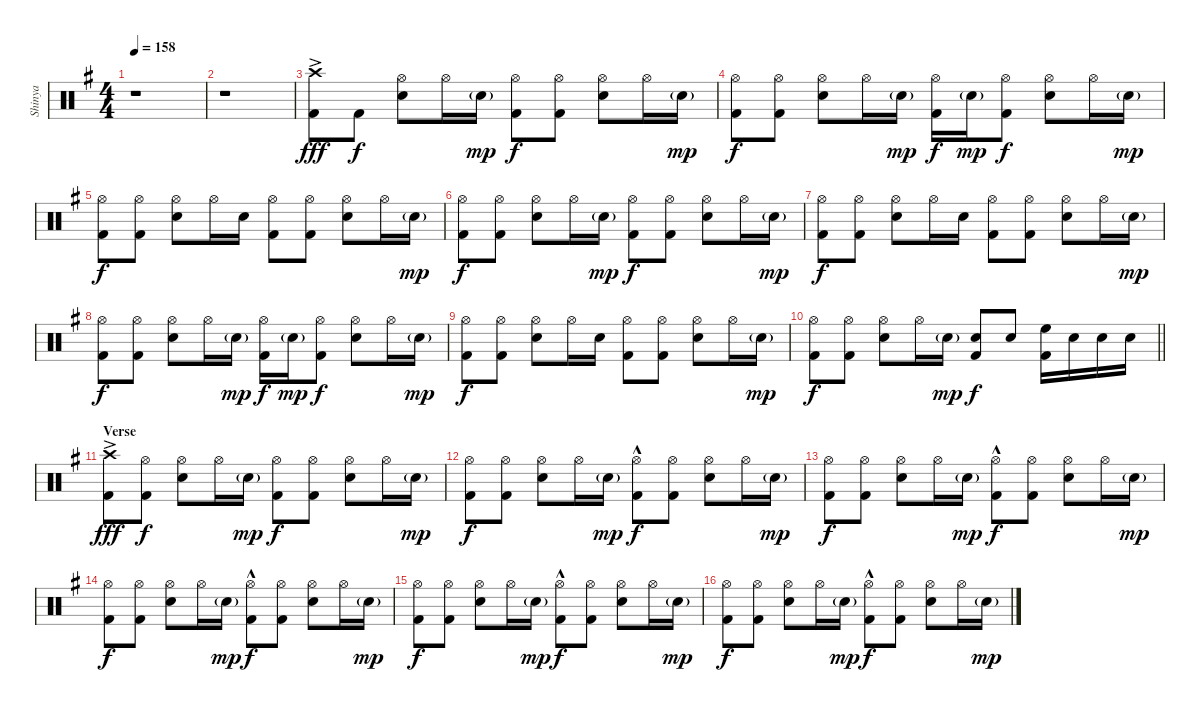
\track ("Shinya" "Shinya") {instrument percussion}
\staff {score}
\articulation defaults
\ts (4 4)
\tempo 158
\clef neutral
\ks g
r.1{dy fff} |
r.1 |
("Crash high (hit)"{ac} "Kick (hit) 2").8 "Kick (hit) 2".8{dy f} ("Hi-Hat (open)" "Snare (hit) 2").8 "Hi-Hat (open)".16 "Snare (hit) 2"{g}.16{dy mp} ("Hi-Hat (open)" "Kick (hit) 2").8{dy f} ("Hi-Hat (open)" "Kick (hit) 2").8 ("Hi-Hat (open)" "Snare (hit) 2").8 "Hi-Hat (open)".16 "Snare (hit) 2"{g}.16{dy mp} |
("Hi-Hat (open)" "Kick (hit) 2").8{dy f} ("Hi-Hat (open)" "Kick (hit) 2").8 ("Hi-Hat (open)" "Snare (hit) 2").8 "Hi-Hat (open)".16 "Snare (hit) 2"{g}.16{dy mp} ("Hi-Hat (open)" "Kick (hit) 2").16{dy f} "Snare (hit) 2"{g}.16{dy mp} ("Hi-Hat (open)" "Kick (hit) 2").8{dy f} ("Hi-Hat (open)" "Snare (hit) 2").8 "Hi-Hat (open)".16 "Snare (hit) 2"{g}.16{dy mp} |
("Hi-Hat (open)" "Kick (hit) 2").8{dy f} ("Hi-Hat (open)" "Kick (hit) 2").8 ("Hi-Hat (open)" "Snare (hit) 2").8 "Hi-Hat (open)".16 "Snare (hit) 2".16 ("Hi-Hat (open)" "Kick (hit) 2").8 ("Hi-Hat (open)" "Kick (hit) 2").8 ("Hi-Hat (open)" "Snare (hit) 2").8 "Hi-Hat (open)".16 "Snare (hit) 2"{g}.16{dy mp} |
("Hi-Hat (open)" "Kick (hit) 2").8{dy f} ("Hi-Hat (open)" "Kick (hit) 2").8 ("Hi-Hat (open)" "Snare (hit) 2").8 "Hi-Hat (open)".16 "Snare (hit) 2"{g}.16{dy mp} ("Hi-Hat (open)" "Kick (hit) 2").8{dy f} ("Hi-Hat (open)" "Kick (hit) 2").8 ("Hi-Hat (open)" "Snare (hit) 2").8 "Hi-Hat (open)".16 "Snare (hit) 2"{g}.16{dy mp} |
("Hi-Hat (open)" "Kick (hit) 2").8{dy f} ("Hi-Hat (open)" "Kick (hit) 2").8 ("Hi-Hat (open)" "Snare (hit) 2").8 "Hi-Hat (open)".16 "Snare (hit) 2".16 ("Hi-Hat (open)" "Kick (hit) 2").8 ("Hi-Hat (open)" "Kick (hit) 2").8 ("Hi-Hat (open)" "Snare (hit) 2").8 "Hi-Hat (open)".16 "Snare (hit) 2"{g}.16{dy mp} |
("Hi-Hat (open)" "Kick (hit) 2").8{dy f} ("Hi-Hat (open)" "Kick (hit) 2").8 ("Hi-Hat (open)" "Snare (hit) 2").8 "Hi-Hat (open)".16 "Snare (hit) 2"{g}.16{dy mp} ("Hi-Hat (open)" "Kick (hit) 2").16{dy f} "Snare (hit) 2"{g}.16{dy mp} ("Hi-Hat (open)" "Kick (hit) 2").8{dy f} ("Hi-Hat (open)" "Snare (hit) 2").8 "Hi-Hat (open)".16 "Snare (hit) 2"{g}.16{dy mp} |
("Hi-Hat (open)" "Kick (hit) 2").8{dy f} ("Hi-Hat (open)" "Kick (hit) 2").8 ("Hi-Hat (open)" "Snare (hit) 2").8 "Hi-Hat (open)".16 "Snare (hit) 2".16 ("Hi-Hat (open)" "Kick (hit) 2").8 ("Hi-Hat (open)" "Kick (hit) 2").8 ("Hi-Hat (open)" "Snare (hit) 2").8 "Hi-Hat (open)".16 "Snare (hit) 2"{g}.16{dy mp} |
\barLineRight lightlight
("Hi-Hat (open)" "Kick (hit) 2").8{dy f} ("Hi-Hat (open)" "Kick (hit) 2").8 ("Hi-Hat (open)" "Snare (hit) 2").8 "Hi-Hat (open)".16 "Snare (hit) 2"{g}.16{dy mp} ("Snare (hit) 2" "Kick (hit) 2").8{dy f} "Snare (hit) 2".8 ("High Floor Tom (hit)" "Kick (hit) 2").16 "Snare (hit) 2".16 "Snare (hit) 2".16 "Snare (hit) 2".16 |
\section ("" "Verse ")
("Crash high (hit)"{ac} "Kick (hit) 2").8{dy fff} ("Hi-Hat (open)" "Kick (hit) 2").8{dy f} ("Hi-Hat (open)" "Snare (hit) 2").8 "Hi-Hat (open)".16 "Snare (hit) 2"{g}.16{dy mp} ("Hi-Hat (open)" "Kick (hit) 2").8{dy f} ("Hi-Hat (open)" "Kick (hit) 2").8 ("Hi-Hat (open)" "Snare (hit) 2").8 "Hi-Hat (open)".16 "Snare (hit) 2"{g}.16{dy mp} |
("Hi-Hat (open)" "Kick (hit) 2").8{dy f} ("Hi-Hat (open)" "Kick (hit) 2").8 ("Hi-Hat (open)" "Snare (hit) 2").8 "Hi-Hat (open)".16 "Snare (hit) 2"{g}.16{dy mp} ("Hi-Hat (open)" "Kick (hit) 2"{hac}).8{dy f} ("Hi-Hat (open)" "Kick (hit) 2").8 ("Hi-Hat (open)" "Snare (hit) 2").8 "Hi-Hat (open)".16 "Snare (hit) 2"{g}.16{dy mp} |
("Hi-Hat (open)" "Kick (hit) 2").8{dy f} ("Hi-Hat (open)" "Kick (hit) 2").8 ("Hi-Hat (open)" "Snare (hit) 2").8 "Hi-Hat (open)".16 "Snare (hit) 2"{g}.16{dy mp} ("Hi-Hat (open)" "Kick (hit) 2"{hac}).8{dy f} ("Hi-Hat (open)" "Kick (hit) 2").8 ("Hi-Hat (open)" "Snare (hit) 2").8 "Hi-Hat (open)".16 "Snare (hit) 2"{g}.16{dy mp} |
("Hi-Hat (open)" "Kick (hit) 2").8{dy f} ("Hi-Hat (open)" "Kick (hit) 2").8 ("Hi-Hat (open)" "Snare (hit) 2").8 "Hi-Hat (open)".16 "Snare (hit) 2"{g}.16{dy mp} ("Hi-Hat (open)" "Kick (hit) 2"{hac}).8{dy f} ("Hi-Hat (open)" "Kick (hit) 2").8 ("Hi-Hat (open)" "Snare (hit) 2").8 "Hi-Hat (open)".16 "Snare (hit) 2"{g}.16{dy mp} |
("Hi-Hat (open)" "Kick (hit) 2").8{dy f} ("Hi-Hat (open)" "Kick (hit) 2").8 ("Hi-Hat (open)" "Snare (hit) 2").8 "Hi-Hat (open)".16 "Snare (hit) 2"{g}.16{dy mp} ("Hi-Hat (open)" "Kick (hit) 2"{hac}).8{dy f} ("Hi-Hat (open)" "Kick (hit) 2").8 ("Hi-Hat (open)" "Snare (hit) 2").8 "Hi-Hat (open)".16 "Snare (hit) 2"{g}.16{dy mp} |
("Hi-Hat (open)" "Kick (hit) 2").8{dy f} ("Hi-Hat (open)" "Kick (hit) 2").8 ("Hi-Hat (open)" "Snare (hit) 2").8 "Hi-Hat (open)".16 "Snare (hit) 2"{g}.16{dy mp} ("Hi-Hat (open)" "Kick (hit) 2"{hac}).8{dy f} ("Hi-Hat (open)" "Kick (hit) 2").8 ("Hi-Hat (open)" "Snare (hit) 2").8 "Hi-Hat (open)".16 "Snare (hit) 2"{g}.16{dy mp}
